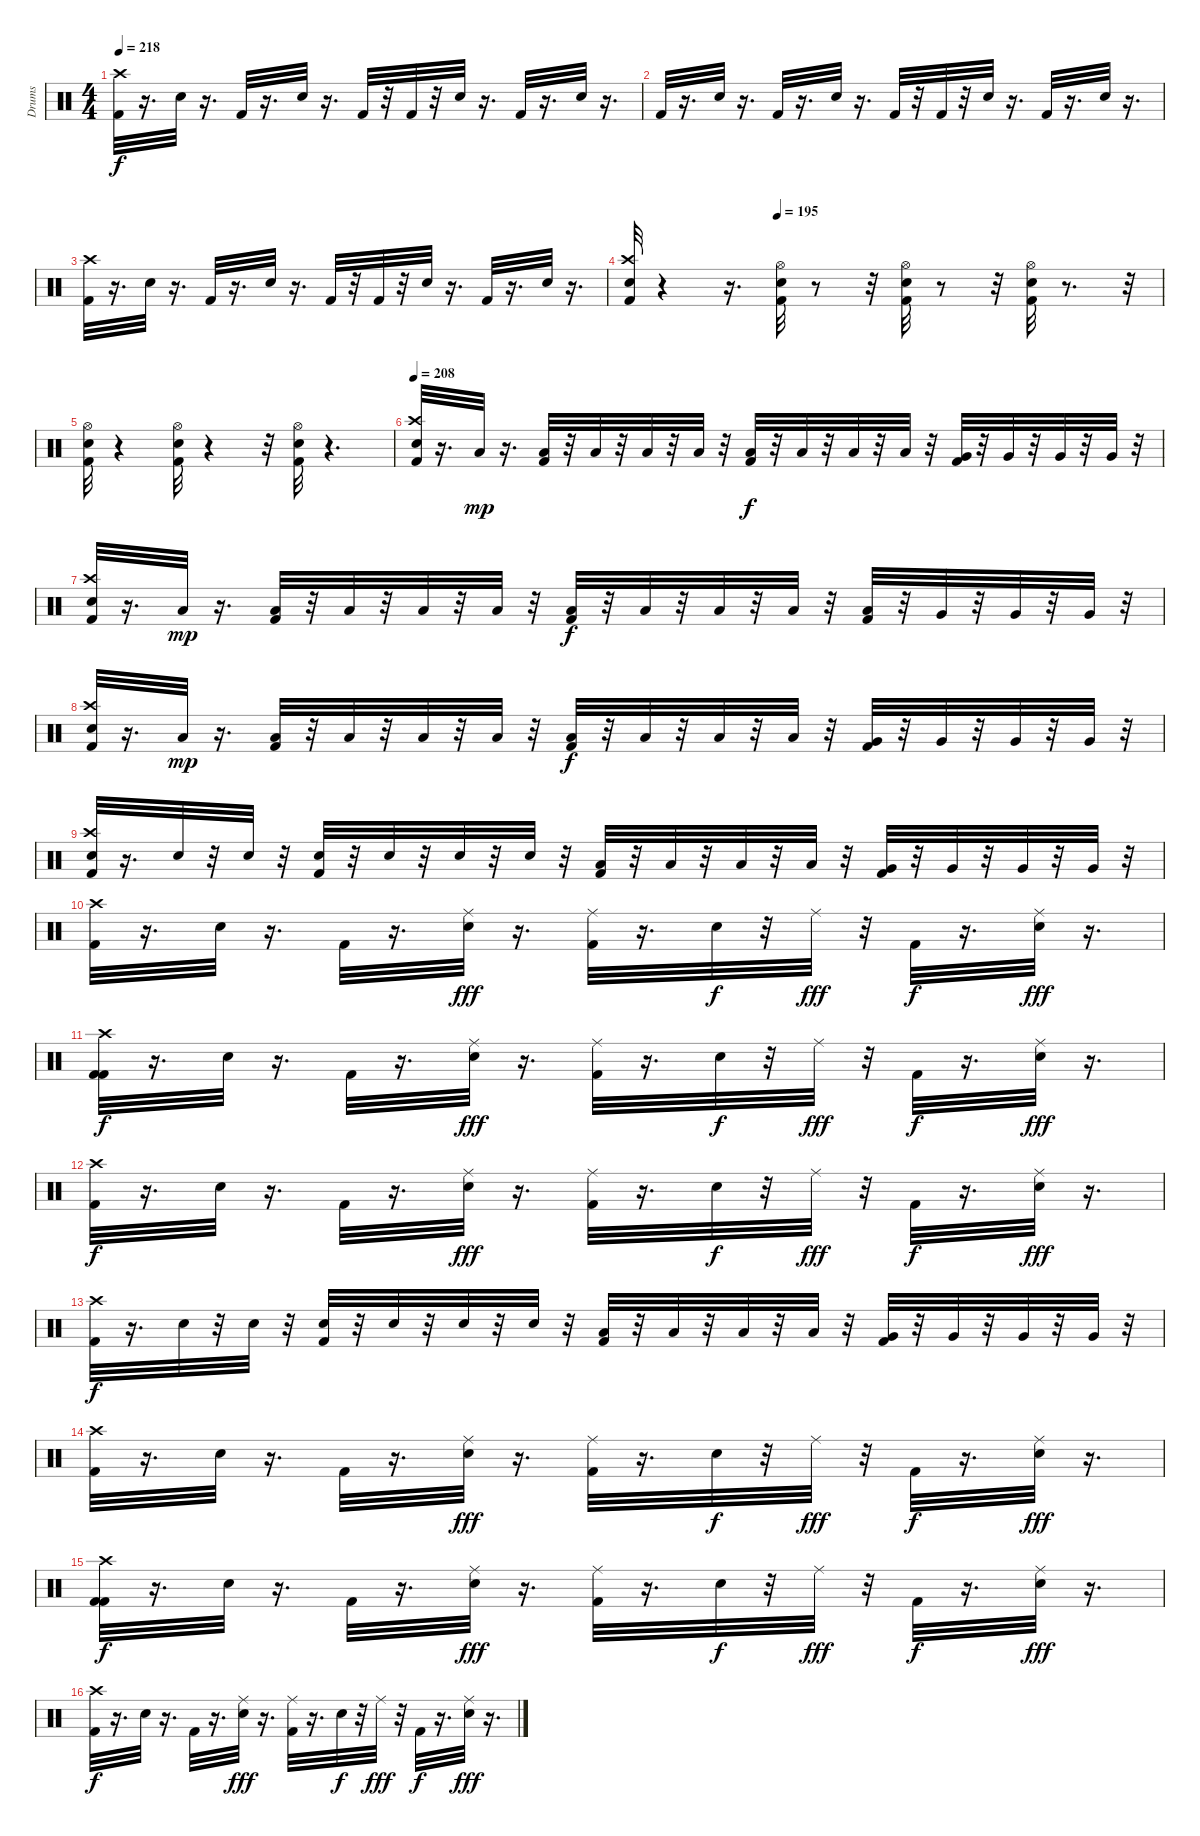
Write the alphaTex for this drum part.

\track ("Drums" "Drums") {instrument percussion}
\staff {score}
\articulation defaults
\ts (4 4)
\tempo 218
\clef neutral
\ks c
("Kick (hit) 2" "Crash high (hit)").32{dy f} r.16{d} "Electric Snare (hit)".32 r.16{d} "Kick (hit) 2".32 r.16{d} "Electric Snare (hit)".32 r.16{d} "Kick (hit) 2".32 r.32 "Kick (hit) 2".32 r.32 "Electric Snare (hit)".32 r.16{d} "Kick (hit) 2".32 r.16{d} "Electric Snare (hit)".32 r.16{d} |
"Kick (hit) 2".32 r.16{d} "Electric Snare (hit)".32 r.16{d} "Kick (hit) 2".32 r.16{d} "Electric Snare (hit)".32 r.16{d} "Kick (hit) 2".32 r.32 "Kick (hit) 2".32 r.32 "Electric Snare (hit)".32 r.16{d} "Kick (hit) 2".32 r.16{d} "Electric Snare (hit)".32 r.16{d} |
("Kick (hit) 2" "Crash high (hit)").32 r.16{d} "Electric Snare (hit)".32 r.16{d} "Kick (hit) 2".32 r.16{d} "Electric Snare (hit)".32 r.16{d} "Kick (hit) 2".32 r.32 "Kick (hit) 2".32 r.32 "Electric Snare (hit)".32 r.16{d} "Kick (hit) 2".32 r.16{d} "Electric Snare (hit)".32 r.16{d} |
\tempo (195 0.28125)
("Kick (hit) 2" "Electric Snare (hit)" "Crash high (hit)").32 r.4 r.16{d} ("Electric Snare (hit)" "Kick (hit) 2" "Hi-Hat (open)").32 r.8 r.32 ("Electric Snare (hit)" "Kick (hit) 2" "Hi-Hat (open)").32 r.8 r.32 ("Electric Snare (hit)" "Kick (hit) 2" "Hi-Hat (open)").32 r.8{d} r.32 |
("Electric Snare (hit)" "Kick (hit) 2" "Hi-Hat (open)").32 r.4 ("Electric Snare (hit)" "Kick (hit) 2" "Hi-Hat (open)").32 r.4 r.32 ("Electric Snare (hit)" "Kick (hit) 2" "Hi-Hat (open)").32 r.4{d} |
\tempo 208
("Electric Snare (hit)" "Kick (hit) 2" "Crash high (hit)").32 r.16{d} "Low Floor Tom (hit)".32{dy mp} r.16{d} ("Kick (hit) 2" "Low Floor Tom (hit)").32 r.32 "Low Floor Tom (hit)".32 r.32 "Low Floor Tom (hit)".32 r.32 "Low Floor Tom (hit)".32 r.32 ("Kick (hit) 2" "Low Tom (hit)").32{dy f} r.32 "Low Tom (hit)".32 r.32 "Low Tom (hit)".32 r.32 "Low Tom (hit)".32 r.32 ("Kick (hit) 2" "Very Low Tom (hit)").32 r.32 "Very Low Tom (hit)".32 r.32 "Very Low Tom (hit)".32 r.32 "Very Low Tom (hit)".32 r.32 |
("Electric Snare (hit)" "Kick (hit) 2" "Crash high (hit)").32 r.16{d} "Low Floor Tom (hit)".32{dy mp} r.16{d} ("Kick (hit) 2" "Low Floor Tom (hit)").32 r.32 "Low Floor Tom (hit)".32 r.32 "Low Floor Tom (hit)".32 r.32 "Low Floor Tom (hit)".32 r.32 ("Kick (hit) 2" "Low Tom (hit)").32{dy f} r.32 "Low Tom (hit)".32 r.32 "Low Tom (hit)".32 r.32 "Low Tom (hit)".32 r.32 ("Kick (hit) 2" "Low Tom (hit)").32 r.32 "Very Low Tom (hit)".32 r.32 "Very Low Tom (hit)".32 r.32 "Very Low Tom (hit)".32 r.32 |
("Electric Snare (hit)" "Kick (hit) 2" "Crash high (hit)").32 r.16{d} "Low Floor Tom (hit)".32{dy mp} r.16{d} ("Kick (hit) 2" "Low Floor Tom (hit)").32 r.32 "Low Floor Tom (hit)".32 r.32 "Low Floor Tom (hit)".32 r.32 "Low Floor Tom (hit)".32 r.32 ("Kick (hit) 2" "Low Tom (hit)").32{dy f} r.32 "Low Tom (hit)".32 r.32 "Low Tom (hit)".32 r.32 "Low Tom (hit)".32 r.32 ("Kick (hit) 2" "Very Low Tom (hit)").32 r.32 "Very Low Tom (hit)".32 r.32 "Very Low Tom (hit)".32 r.32 "Very Low Tom (hit)".32 r.32 |
("Electric Snare (hit)" "Kick (hit) 2" "Crash high (hit)").32 r.16{d} "Electric Snare (hit)".32 r.32 "Electric Snare (hit)".32 r.32 ("Kick (hit) 2" "Electric Snare (hit)").32 r.32 "Electric Snare (hit)".32 r.32 "Electric Snare (hit)".32 r.32 "Electric Snare (hit)".32 r.32 ("Low Tom (hit)" "Kick (hit) 2").32 r.32 "Low Tom (hit)".32 r.32 "Low Tom (hit)".32 r.32 "Low Tom (hit)".32 r.32 ("Very Low Tom (hit)" "Kick (hit) 2").32 r.32 "Very Low Tom (hit)".32 r.32 "Very Low Tom (hit)".32 r.32 "Very Low Tom (hit)".32 r.32 |
("Kick (hit) 2" "Crash high (hit)").32 r.16{d} "Electric Snare (hit)".32 r.16{d} "Kick (hit) 2".32 r.16{d} ("Electric Snare (hit)" "Ride (middle)").32{dy fff} r.16{d} ("Kick (hit) 2" "Ride (middle)").32 r.16{d} "Electric Snare (hit)".32{dy f} r.32 "Ride (middle)".32{dy fff} r.32 "Kick (hit) 2".32{dy f} r.16{d} ("Electric Snare (hit)" "Ride (middle)").32{dy fff} r.16{d} |
("Kick (hit) 2" "Kick (hit) 2" "Crash high (hit)").32{dy f} r.16{d} "Electric Snare (hit)".32 r.16{d} "Kick (hit) 2".32 r.16{d} ("Electric Snare (hit)" "Ride (middle)").32{dy fff} r.16{d} ("Kick (hit) 2" "Ride (middle)").32 r.16{d} "Electric Snare (hit)".32{dy f} r.32 "Ride (middle)".32{dy fff} r.32 "Kick (hit) 2".32{dy f} r.16{d} ("Electric Snare (hit)" "Ride (middle)").32{dy fff} r.16{d} |
("Kick (hit) 2" "Crash high (hit)").32{dy f} r.16{d} "Electric Snare (hit)".32 r.16{d} "Kick (hit) 2".32 r.16{d} ("Electric Snare (hit)" "Ride (middle)").32{dy fff} r.16{d} ("Kick (hit) 2" "Ride (middle)").32 r.16{d} "Electric Snare (hit)".32{dy f} r.32 "Ride (middle)".32{dy fff} r.32 "Kick (hit) 2".32{dy f} r.16{d} ("Electric Snare (hit)" "Ride (middle)").32{dy fff} r.16{d} |
("Kick (hit) 2" "Crash high (hit)").32{dy f} r.16{d} "Electric Snare (hit)".32 r.32 "Electric Snare (hit)".32 r.32 ("Kick (hit) 2" "Electric Snare (hit)").32 r.32 "Electric Snare (hit)".32 r.32 "Electric Snare (hit)".32 r.32 "Electric Snare (hit)".32 r.32 ("Kick (hit) 2" "Low Tom (hit)").32 r.32 "Low Tom (hit)".32 r.32 "Low Tom (hit)".32 r.32 "Low Tom (hit)".32 r.32 ("Kick (hit) 2" "Very Low Tom (hit)").32 r.32 "Very Low Tom (hit)".32 r.32 "Very Low Tom (hit)".32 r.32 "Very Low Tom (hit)".32 r.32 |
("Kick (hit) 2" "Crash high (hit)").32 r.16{d} "Electric Snare (hit)".32 r.16{d} "Kick (hit) 2".32 r.16{d} ("Electric Snare (hit)" "Ride (middle)").32{dy fff} r.16{d} ("Kick (hit) 2" "Ride (middle)").32 r.16{d} "Electric Snare (hit)".32{dy f} r.32 "Ride (middle)".32{dy fff} r.32 "Kick (hit) 2".32{dy f} r.16{d} ("Electric Snare (hit)" "Ride (middle)").32{dy fff} r.16{d} |
("Kick (hit) 2" "Kick (hit) 2" "Crash high (hit)").32{dy f} r.16{d} "Electric Snare (hit)".32 r.16{d} "Kick (hit) 2".32 r.16{d} ("Electric Snare (hit)" "Ride (middle)").32{dy fff} r.16{d} ("Kick (hit) 2" "Ride (middle)").32 r.16{d} "Electric Snare (hit)".32{dy f} r.32 "Ride (middle)".32{dy fff} r.32 "Kick (hit) 2".32{dy f} r.16{d} ("Electric Snare (hit)" "Ride (middle)").32{dy fff} r.16{d} |
("Kick (hit) 2" "Crash high (hit)").32{dy f} r.16{d} "Electric Snare (hit)".32 r.16{d} "Kick (hit) 2".32 r.16{d} ("Electric Snare (hit)" "Ride (middle)").32{dy fff} r.16{d} ("Kick (hit) 2" "Ride (middle)").32 r.16{d} "Electric Snare (hit)".32{dy f} r.32 "Ride (middle)".32{dy fff} r.32 "Kick (hit) 2".32{dy f} r.16{d} ("Electric Snare (hit)" "Ride (middle)").32{dy fff} r.16{d}
